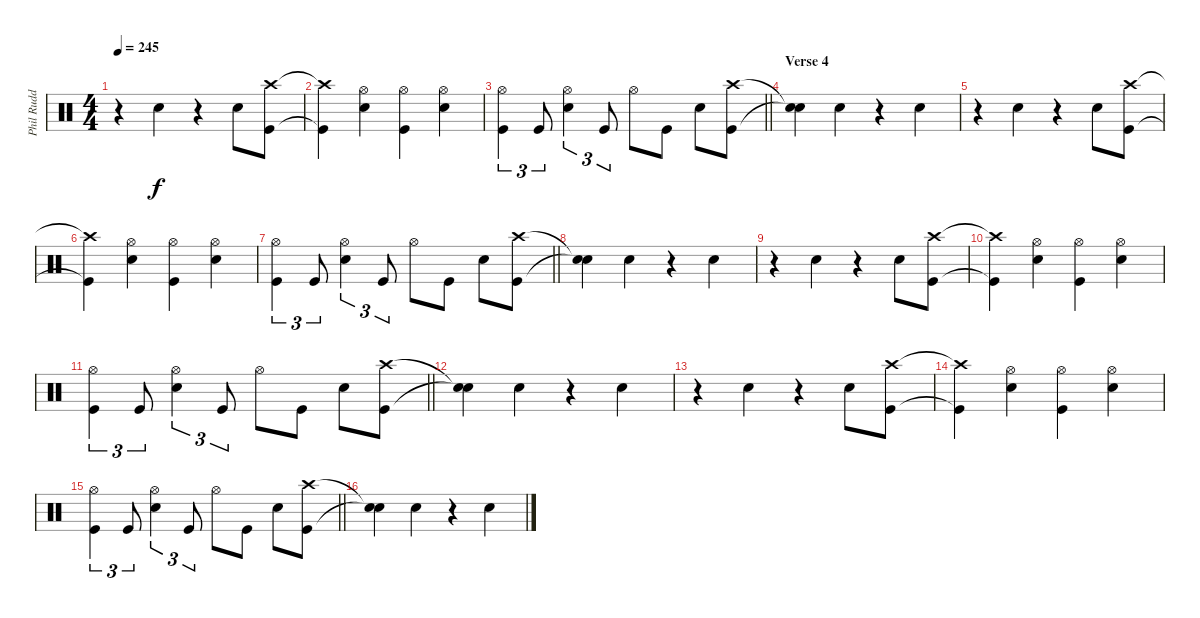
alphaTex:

\track ("Phil Rudd" "Phil Rudd") {instrument percussion}
\staff {score}
\articulation defaults
\ts (4 4)
\tempo 245
\clef neutral
\ks c
r.4{dy f} "Snare (hit) 2".4 r.4 "Snare (hit) 2".8 ("Crash high (hit)" "Kick (hit)").8 |
("Crash high (hit)"{t} "Kick (hit)"{t}).4 ("Hi-Hat (open)" "Snare (hit) 2").4 ("Hi-Hat (open)" "Kick (hit)").4 ("Hi-Hat (open)" "Snare (hit) 2").4 |
\barLineRight lightlight
("Hi-Hat (open)" "Kick (hit)").4{tu (3 2)} "Kick (hit)".8{tu (3 2)} ("Hi-Hat (open)" "Snare (hit) 2").4{tu (3 2)} "Kick (hit)".8{tu (3 2)} "Hi-Hat (open)".8 "Kick (hit)".8 "Snare (hit) 2".8 ("Crash high (hit)" "Kick (hit)").8 |
\section ("" "Verse 4")
("Snare (hit)"{t} "Snare (hit)"{t}).4 "Snare (hit) 2".4 r.4 "Snare (hit) 2".4 |
r.4 "Snare (hit) 2".4 r.4 "Snare (hit) 2".8 ("Crash high (hit)" "Kick (hit)").8 |
("Crash high (hit)"{t} "Kick (hit)"{t}).4 ("Hi-Hat (open)" "Snare (hit) 2").4 ("Hi-Hat (open)" "Kick (hit)").4 ("Hi-Hat (open)" "Snare (hit) 2").4 |
\barLineRight lightlight
("Hi-Hat (open)" "Kick (hit)").4{tu (3 2)} "Kick (hit)".8{tu (3 2)} ("Hi-Hat (open)" "Snare (hit) 2").4{tu (3 2)} "Kick (hit)".8{tu (3 2)} "Hi-Hat (open)".8 "Kick (hit)".8 "Snare (hit) 2".8 ("Crash high (hit)" "Kick (hit)").8 |
("Snare (hit)"{t} "Snare (hit)"{t}).4 "Snare (hit) 2".4 r.4 "Snare (hit) 2".4 |
r.4 "Snare (hit) 2".4 r.4 "Snare (hit) 2".8 ("Crash high (hit)" "Kick (hit)").8 |
("Crash high (hit)"{t} "Kick (hit)"{t}).4 ("Hi-Hat (open)" "Snare (hit) 2").4 ("Hi-Hat (open)" "Kick (hit)").4 ("Hi-Hat (open)" "Snare (hit) 2").4 |
\barLineRight lightlight
("Hi-Hat (open)" "Kick (hit)").4{tu (3 2)} "Kick (hit)".8{tu (3 2)} ("Hi-Hat (open)" "Snare (hit) 2").4{tu (3 2)} "Kick (hit)".8{tu (3 2)} "Hi-Hat (open)".8 "Kick (hit)".8 "Snare (hit) 2".8 ("Crash high (hit)" "Kick (hit)").8 |
("Snare (hit)"{t} "Snare (hit)"{t}).4 "Snare (hit) 2".4 r.4 "Snare (hit) 2".4 |
r.4 "Snare (hit) 2".4 r.4 "Snare (hit) 2".8 ("Crash high (hit)" "Kick (hit)").8 |
("Crash high (hit)"{t} "Kick (hit)"{t}).4 ("Hi-Hat (open)" "Snare (hit) 2").4 ("Hi-Hat (open)" "Kick (hit)").4 ("Hi-Hat (open)" "Snare (hit) 2").4 |
\barLineRight lightlight
("Hi-Hat (open)" "Kick (hit)").4{tu (3 2)} "Kick (hit)".8{tu (3 2)} ("Hi-Hat (open)" "Snare (hit) 2").4{tu (3 2)} "Kick (hit)".8{tu (3 2)} "Hi-Hat (open)".8 "Kick (hit)".8 "Snare (hit) 2".8 ("Crash high (hit)" "Kick (hit)").8 |
("Snare (hit)"{t} "Snare (hit)"{t}).4 "Snare (hit) 2".4 r.4 "Snare (hit) 2".4
